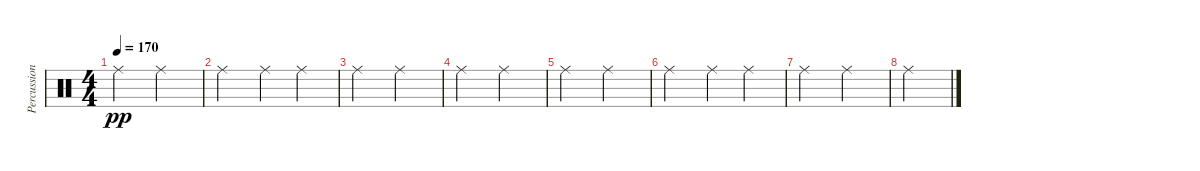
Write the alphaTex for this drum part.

\track ("Percussion" "Percussion") {instrument percussion}
\staff {score}
\articulation defaults
\ts (4 4)
\tempo 170
\clef neutral
\ks c "Ride (middle)".2{dy pp} "Ride (middle)".2
|
"Ride (middle)".2 "Ride (middle)".4 "Ride (middle)".4 |
"Ride (middle)".2 "Ride (middle)".2 |
"Ride (middle)".2 "Ride (middle)".2 |
"Ride (middle)".2 "Ride (middle)".2 |
"Ride (middle)".2 "Ride (middle)".4 "Ride (middle)".4 |
"Ride (middle)".2 "Ride (middle)".2 |
"Ride (middle)".2
